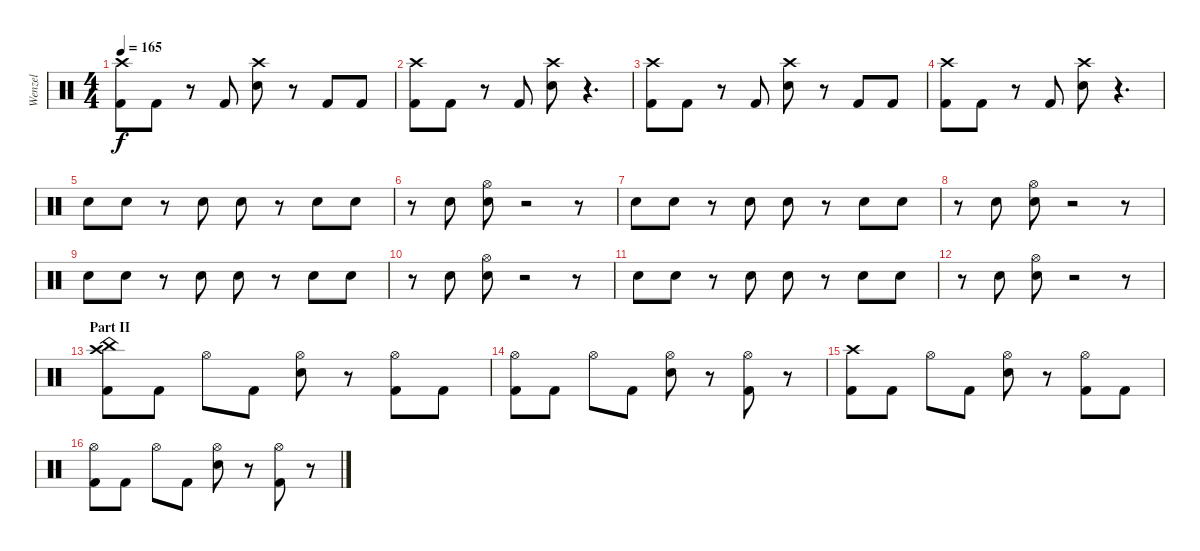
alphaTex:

\track ("Wenzel" "Wenzel") {instrument percussion}
\staff {score}
\articulation defaults
\ts (4 4)
\tempo 165
\clef neutral
\ks c
("Crash high (hit)" "Kick (hit) 2").8{dy f} "Kick (hit) 2".8 r.8 "Kick (hit) 2".8 ("Crash high (hit)" "Snare (hit) 2").8 r.8 "Kick (hit) 2".8 "Kick (hit) 2".8 |
("Crash high (hit)" "Kick (hit) 2").8 "Kick (hit) 2".8 r.8 "Kick (hit) 2".8 ("Crash high (hit)" "Snare (hit) 2").8 r.4{d} |
("Crash high (hit)" "Kick (hit) 2").8 "Kick (hit) 2".8 r.8 "Kick (hit) 2".8 ("Crash high (hit)" "Snare (hit) 2").8 r.8 "Kick (hit) 2".8 "Kick (hit) 2".8 |
("Crash high (hit)" "Kick (hit) 2").8 "Kick (hit) 2".8 r.8 "Kick (hit) 2".8 ("Crash high (hit)" "Snare (hit) 2").8 r.4{d} |
"Snare (hit) 2".8 "Snare (hit) 2".8 r.8 "Snare (hit) 2".8 "Snare (hit) 2".8 r.8 "Snare (hit) 2".8 "Snare (hit) 2".8 |
r.8 "Snare (hit) 2".8 ("Hi-Hat (open)" "Snare (hit) 2").8 r.2 r.8 |
"Snare (hit) 2".8 "Snare (hit) 2".8 r.8 "Snare (hit) 2".8 "Snare (hit) 2".8 r.8 "Snare (hit) 2".8 "Snare (hit) 2".8 |
r.8 "Snare (hit) 2".8 ("Hi-Hat (open)" "Snare (hit) 2").8 r.2 r.8 |
"Snare (hit) 2".8 "Snare (hit) 2".8 r.8 "Snare (hit) 2".8 "Snare (hit) 2".8 r.8 "Snare (hit) 2".8 "Snare (hit) 2".8 |
r.8 "Snare (hit) 2".8 ("Hi-Hat (open)" "Snare (hit) 2").8 r.2 r.8 |
"Snare (hit) 2".8 "Snare (hit) 2".8 r.8 "Snare (hit) 2".8 "Snare (hit) 2".8 r.8 "Snare (hit) 2".8 "Snare (hit) 2".8 |
r.8 "Snare (hit) 2".8 ("Hi-Hat (open)" "Snare (hit) 2").8 r.2 r.8 |
\section ("" "Part II")
("Crash high (hit)" "China (hit)" "Kick (hit) 2").8 "Kick (hit) 2".8 "Hi-Hat (open)".8 "Kick (hit) 2".8 ("Hi-Hat (open)" "Snare (hit) 2").8 r.8 ("Hi-Hat (open)" "Kick (hit) 2").8 "Kick (hit) 2".8 |
("Hi-Hat (open)" "Kick (hit) 2").8 "Kick (hit) 2".8 "Hi-Hat (open)".8 "Kick (hit) 2".8 ("Hi-Hat (open)" "Snare (hit) 2").8 r.8 ("Hi-Hat (open)" "Kick (hit) 2").8 r.8 |
("Crash high (hit)" "Kick (hit) 2").8 "Kick (hit) 2".8 "Hi-Hat (open)".8 "Kick (hit) 2".8 ("Hi-Hat (open)" "Snare (hit) 2").8 r.8 ("Hi-Hat (open)" "Kick (hit) 2").8 "Kick (hit) 2".8 |
("Hi-Hat (open)" "Kick (hit) 2").8 "Kick (hit) 2".8 "Hi-Hat (open)".8 "Kick (hit) 2".8 ("Hi-Hat (open)" "Snare (hit) 2").8 r.8 ("Hi-Hat (open)" "Kick (hit) 2").8 r.8
